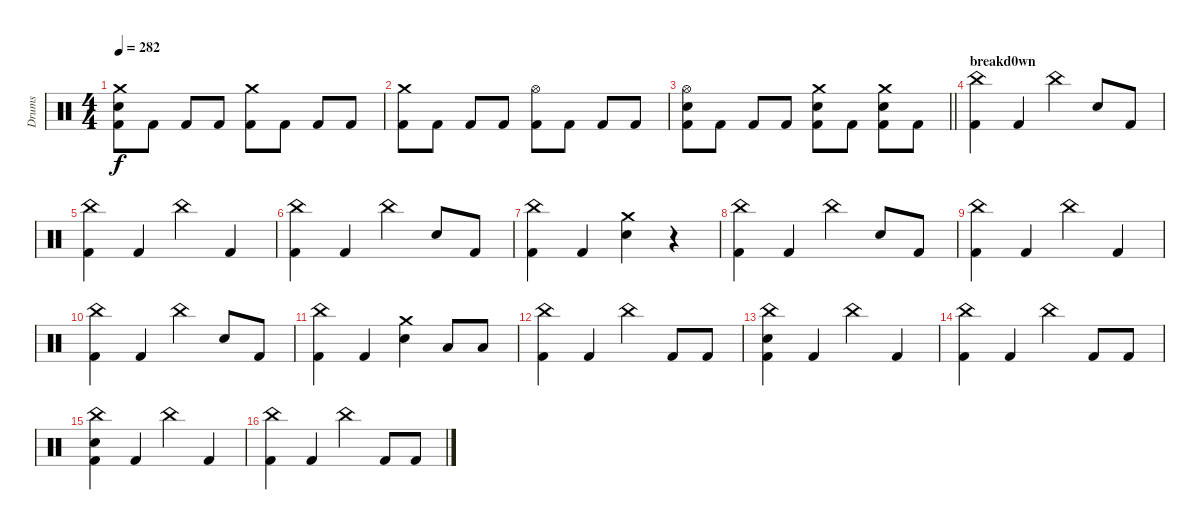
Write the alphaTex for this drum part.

\track ("Drums" "Drums") {instrument percussion}
\staff {score}
\articulation defaults
\ts (4 4)
\tempo 282
\clef neutral
\ks c
("Crash medium (hit)" "Snare (hit) 2" "Kick (hit) 2").8{dy f} "Kick (hit) 2".8 "Kick (hit) 2".8 "Kick (hit) 2".8 ("Crash medium (hit)" "Kick (hit) 2").8 "Kick (hit) 2".8 "Kick (hit) 2".8 "Kick (hit) 2".8 |
("Crash medium (hit)" "Kick (hit) 2").8 "Kick (hit) 2".8 "Kick (hit) 2".8 "Kick (hit) 2".8 ("Hi-Hat (open)" "Kick (hit) 2").8 "Kick (hit) 2".8 "Kick (hit) 2".8 "Kick (hit) 2".8 |
\barLineRight lightlight
("Hi-Hat (open)" "Snare (hit) 2" "Kick (hit) 2").8 "Kick (hit) 2".8 "Kick (hit) 2".8 "Kick (hit) 2".8 ("Crash medium (hit)" "Snare (hit) 2" "Kick (hit) 2").8 "Kick (hit) 2".8 ("Crash medium (hit)" "Snare (hit) 2" "Kick (hit) 2").8 "Kick (hit) 2".8 |
\section ("" "breakd0wn")
("China (hit)" "Kick (hit) 2").4 "Kick (hit) 2".4 "China (hit)".4 "Snare (hit) 2".8 "Kick (hit) 2".8 |
("China (hit)" "Kick (hit) 2").4 "Kick (hit) 2".4 "China (hit)".4 "Kick (hit) 2".4 |
("China (hit)" "Kick (hit) 2").4 "Kick (hit) 2".4 "China (hit)".4 "Snare (hit) 2".8 "Kick (hit) 2".8 |
("China (hit)" "Kick (hit) 2").4 "Kick (hit) 2".4 ("Crash medium (hit)" "Snare (hit) 2").4 r.4 |
("China (hit)" "Kick (hit) 2").4 "Kick (hit) 2".4 "China (hit)".4 "Snare (hit) 2".8 "Kick (hit) 2".8 |
("China (hit)" "Kick (hit) 2").4 "Kick (hit) 2".4 "China (hit)".4 "Kick (hit) 2".4 |
("China (hit)" "Kick (hit) 2").4 "Kick (hit) 2".4 "China (hit)".4 "Snare (hit) 2".8 "Kick (hit) 2".8 |
("China (hit)" "Kick (hit) 2").4 "Kick (hit) 2".4 ("Crash medium (hit)" "Snare (hit) 2").4 "Low Tom (hit)".8 "Low Tom (hit)".8 |
("China (hit)" "Kick (hit) 2").4 "Kick (hit) 2".4 "China (hit)".4 "Kick (hit) 2".8 "Kick (hit) 2".8 |
("China (hit)" "Snare (hit) 2" "Kick (hit) 2").4 "Kick (hit) 2".4 "China (hit)".4 "Kick (hit) 2".4 |
("China (hit)" "Kick (hit) 2").4 "Kick (hit) 2".4 "China (hit)".4 "Kick (hit) 2".8 "Kick (hit) 2".8 |
("China (hit)" "Snare (hit) 2" "Kick (hit) 2").4 "Kick (hit) 2".4 "China (hit)".4 "Kick (hit) 2".4 |
("China (hit)" "Kick (hit) 2").4 "Kick (hit) 2".4 "China (hit)".4 "Kick (hit) 2".8 "Kick (hit) 2".8
